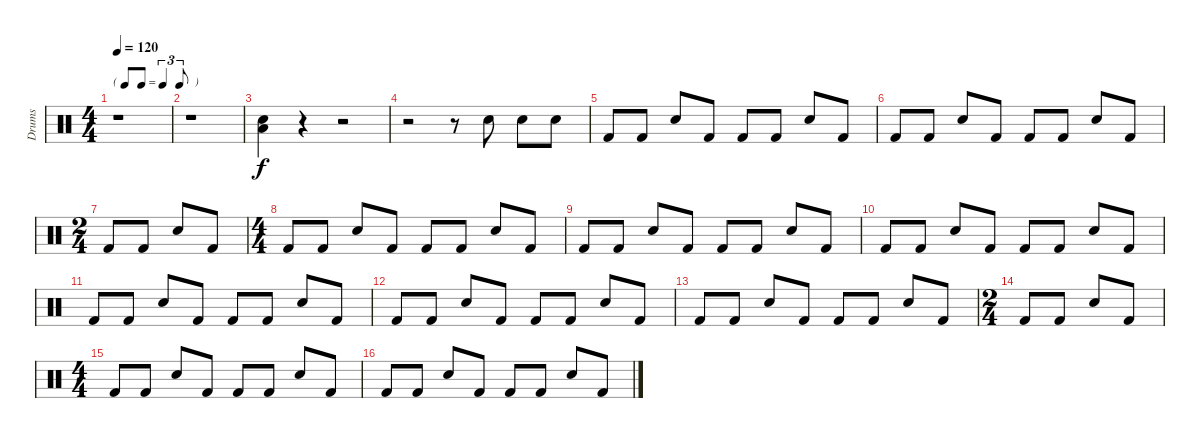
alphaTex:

\track ("Drums" "Drums") {instrument percussion}
\staff {score}
\articulation defaults
\ts (4 4)
\tf triplet8th
\tempo 120
\clef neutral
\ks c
r.1{dy f} |
r.1 |
("Low Floor Tom (hit)" "Snare (hit) 2").4 r.4 r.2 |
r.2 r.8 "Snare (hit) 2".8 "Snare (hit) 2".8 "Snare (hit) 2".8 |
"Kick (hit) 2".8 "Kick (hit) 2".8 "Snare (hit) 2".8 "Kick (hit) 2".8 "Kick (hit) 2".8 "Kick (hit) 2".8 "Snare (hit) 2".8 "Kick (hit) 2".8 |
"Kick (hit) 2".8 "Kick (hit) 2".8 "Snare (hit) 2".8 "Kick (hit) 2".8 "Kick (hit) 2".8 "Kick (hit) 2".8 "Snare (hit) 2".8 "Kick (hit) 2".8 |
\ts (2 4)
"Kick (hit) 2".8 "Kick (hit) 2".8 "Snare (hit) 2".8 "Kick (hit) 2".8 |
\ts (4 4)
"Kick (hit) 2".8 "Kick (hit) 2".8 "Snare (hit) 2".8 "Kick (hit) 2".8 "Kick (hit) 2".8 "Kick (hit) 2".8 "Snare (hit) 2".8 "Kick (hit) 2".8 |
"Kick (hit) 2".8 "Kick (hit) 2".8 "Snare (hit) 2".8 "Kick (hit) 2".8 "Kick (hit) 2".8 "Kick (hit) 2".8 "Snare (hit) 2".8 "Kick (hit) 2".8 |
"Kick (hit) 2".8 "Kick (hit) 2".8 "Snare (hit) 2".8 "Kick (hit) 2".8 "Kick (hit) 2".8 "Kick (hit) 2".8 "Snare (hit) 2".8 "Kick (hit) 2".8 |
"Kick (hit) 2".8 "Kick (hit) 2".8 "Snare (hit) 2".8 "Kick (hit) 2".8 "Kick (hit) 2".8 "Kick (hit) 2".8 "Snare (hit) 2".8 "Kick (hit) 2".8 |
"Kick (hit) 2".8 "Kick (hit) 2".8 "Snare (hit) 2".8 "Kick (hit) 2".8 "Kick (hit) 2".8 "Kick (hit) 2".8 "Snare (hit) 2".8 "Kick (hit) 2".8 |
"Kick (hit) 2".8 "Kick (hit) 2".8 "Snare (hit) 2".8 "Kick (hit) 2".8 "Kick (hit) 2".8 "Kick (hit) 2".8 "Snare (hit) 2".8 "Kick (hit) 2".8 |
\ts (2 4)
"Kick (hit) 2".8 "Kick (hit) 2".8 "Snare (hit) 2".8 "Kick (hit) 2".8 |
\ts (4 4)
"Kick (hit) 2".8 "Kick (hit) 2".8 "Snare (hit) 2".8 "Kick (hit) 2".8 "Kick (hit) 2".8 "Kick (hit) 2".8 "Snare (hit) 2".8 "Kick (hit) 2".8 |
"Kick (hit) 2".8 "Kick (hit) 2".8 "Snare (hit) 2".8 "Kick (hit) 2".8 "Kick (hit) 2".8 "Kick (hit) 2".8 "Snare (hit) 2".8 "Kick (hit) 2".8
